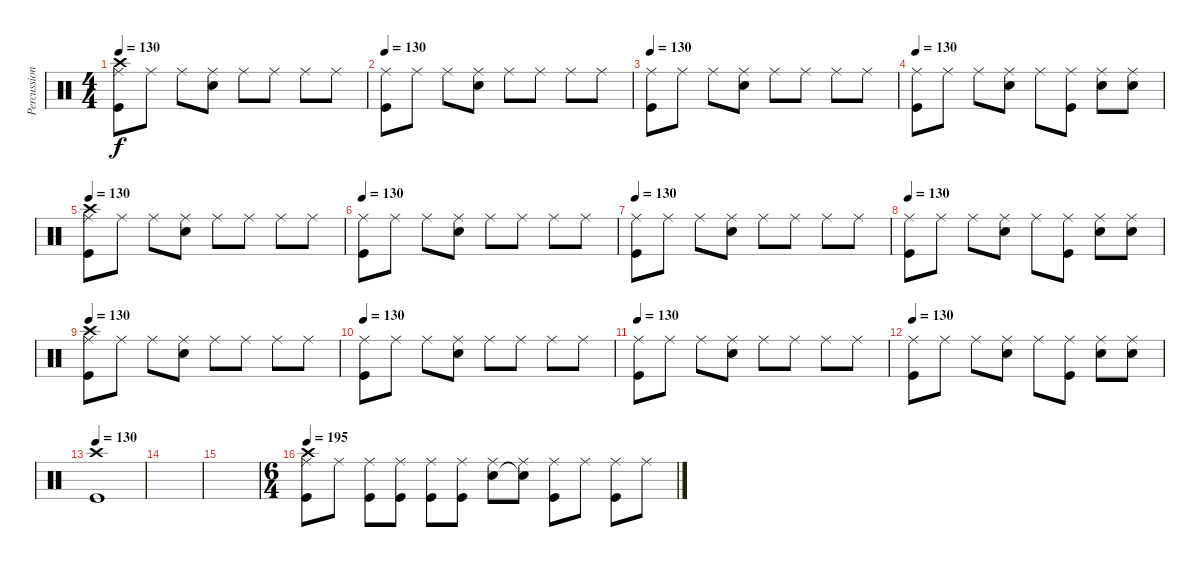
\track ("Percussion" "Percussion") {instrument percussion}
\staff {score}
\articulation defaults
\ts (4 4)
\tempo 130
\clef neutral
\ks c
("Crash high (hit)" "Ride (middle)" "Kick (hit)").8{dy f} "Ride (middle)".8 "Ride (middle)".8 ("Ride (middle)" "Electric Snare (hit)").8 "Ride (middle)".8 "Ride (middle)".8 "Ride (middle)".8 "Ride (middle)".8 |
\tempo 130
("Ride (middle)" "Kick (hit)").8 "Ride (middle)".8 "Ride (middle)".8 ("Ride (middle)" "Electric Snare (hit)").8 "Ride (middle)".8 "Ride (middle)".8 "Ride (middle)".8 "Ride (middle)".8 |
\tempo 130
("Ride (middle)" "Kick (hit)").8 "Ride (middle)".8 "Ride (middle)".8 ("Ride (middle)" "Electric Snare (hit)").8 "Ride (middle)".8 "Ride (middle)".8 "Ride (middle)".8 "Ride (middle)".8 |
\tempo 130
("Ride (middle)" "Kick (hit)").8 "Ride (middle)".8 "Ride (middle)".8 ("Ride (middle)" "Electric Snare (hit)").8 "Ride (middle)".8 ("Ride (middle)" "Kick (hit)").8 ("Ride (middle)" "Electric Snare (hit)").8 ("Ride (middle)" "Electric Snare (hit)").8 |
\tempo 130
("Crash high (hit)" "Ride (middle)" "Kick (hit)").8 "Ride (middle)".8 "Ride (middle)".8 ("Ride (middle)" "Electric Snare (hit)").8 "Ride (middle)".8 "Ride (middle)".8 "Ride (middle)".8 "Ride (middle)".8 |
\tempo 130
("Ride (middle)" "Kick (hit)").8 "Ride (middle)".8 "Ride (middle)".8 ("Ride (middle)" "Electric Snare (hit)").8 "Ride (middle)".8 "Ride (middle)".8 "Ride (middle)".8 "Ride (middle)".8 |
\tempo 130
("Ride (middle)" "Kick (hit)").8 "Ride (middle)".8 "Ride (middle)".8 ("Ride (middle)" "Electric Snare (hit)").8 "Ride (middle)".8 "Ride (middle)".8 "Ride (middle)".8 "Ride (middle)".8 |
\tempo 130
("Ride (middle)" "Kick (hit)").8 "Ride (middle)".8 "Ride (middle)".8 ("Ride (middle)" "Electric Snare (hit)").8 "Ride (middle)".8 ("Ride (middle)" "Kick (hit)").8 ("Ride (middle)" "Electric Snare (hit)").8 ("Ride (middle)" "Electric Snare (hit)").8 |
\tempo 130
("Crash high (hit)" "Ride (middle)" "Kick (hit)").8 "Ride (middle)".8 "Ride (middle)".8 ("Ride (middle)" "Electric Snare (hit)").8 "Ride (middle)".8 "Ride (middle)".8 "Ride (middle)".8 "Ride (middle)".8 |
\tempo 130
("Ride (middle)" "Kick (hit)").8 "Ride (middle)".8 "Ride (middle)".8 ("Ride (middle)" "Electric Snare (hit)").8 "Ride (middle)".8 "Ride (middle)".8 "Ride (middle)".8 "Ride (middle)".8 |
\tempo 130
("Ride (middle)" "Kick (hit)").8 "Ride (middle)".8 "Ride (middle)".8 ("Ride (middle)" "Electric Snare (hit)").8 "Ride (middle)".8 "Ride (middle)".8 "Ride (middle)".8 "Ride (middle)".8 |
\tempo 130
("Ride (middle)" "Kick (hit)").8 "Ride (middle)".8 "Ride (middle)".8 ("Ride (middle)" "Electric Snare (hit)").8 "Ride (middle)".8 ("Ride (middle)" "Kick (hit)").8 ("Ride (middle)" "Electric Snare (hit)").8 ("Ride (middle)" "Electric Snare (hit)").8 |
\tempo 130
("Crash high (hit)" "Kick (hit)").1 |
|
|
\ts (6 4)
\tempo 195
("Crash high (hit)" "Ride (middle)" "Kick (hit)").8 "Ride (middle)".8 ("Ride (middle)" "Kick (hit)").8 ("Ride (middle)" "Kick (hit)").8 ("Ride (middle)" "Kick (hit)").8 ("Ride (middle)" "Kick (hit)").8 ("Ride (middle)" "Electric Snare (hit)").8 ("Ride (middle)" "Snare (hit)"{t}).8 ("Ride (middle)" "Kick (hit)").8 "Ride (middle)".8 ("Ride (middle)" "Kick (hit)").8 "Ride (middle)".8
